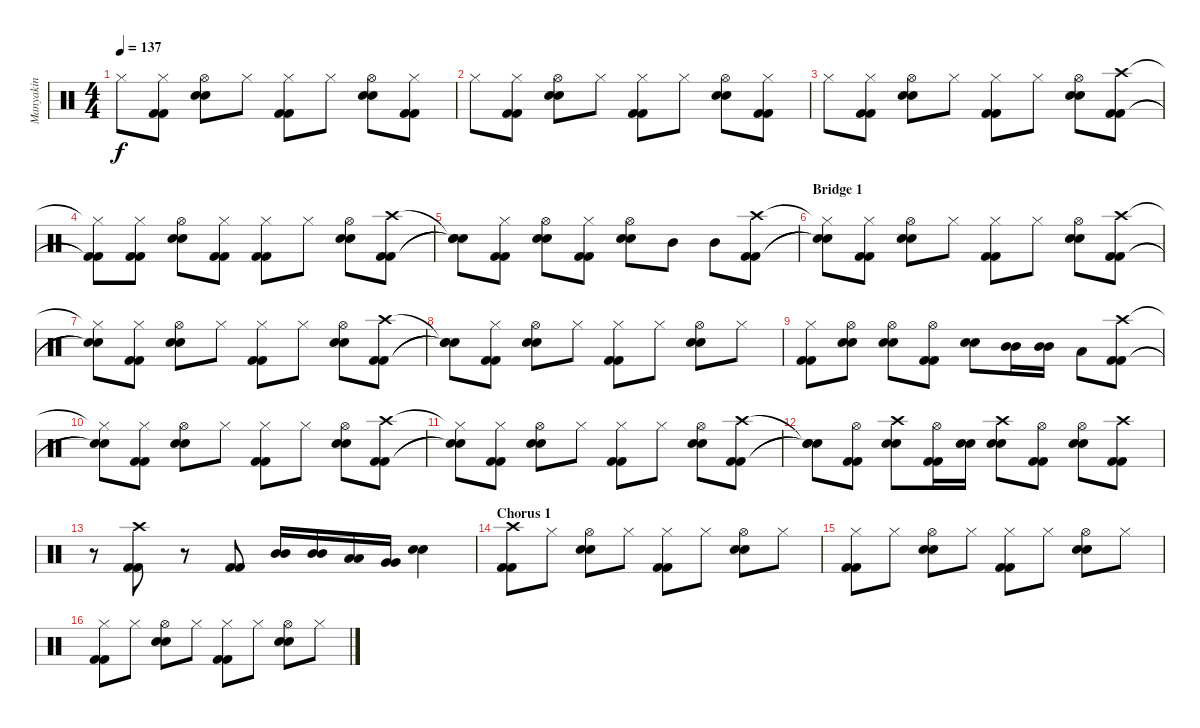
\track ("Manyakin" "Manyakin") {instrument percussion}
\staff {score}
\articulation defaults
\ts (4 4)
\tempo 137
\clef neutral
\ks c "Hi-Hat (closed)".8{dy f}
("Hi-Hat (closed)" "Kick (hit) 2" "Kick (hit) 2").8 ("Hi-Hat (open)" "Electric Snare (hit)" "Electric Snare (hit)").8 "Hi-Hat (closed)".8 ("Hi-Hat (closed)" "Kick (hit) 2" "Kick (hit) 2").8 "Hi-Hat (closed)".8 ("Hi-Hat (open)" "Electric Snare (hit)" "Electric Snare (hit)").8 ("Hi-Hat (closed)" "Kick (hit) 2" "Kick (hit) 2").8 |
"Hi-Hat (closed)".8 ("Hi-Hat (closed)" "Kick (hit) 2" "Kick (hit) 2").8 ("Hi-Hat (open)" "Electric Snare (hit)" "Electric Snare (hit)").8 "Hi-Hat (closed)".8 ("Hi-Hat (closed)" "Kick (hit) 2" "Kick (hit) 2").8 "Hi-Hat (closed)".8 ("Hi-Hat (open)" "Electric Snare (hit)" "Electric Snare (hit)").8 ("Hi-Hat (closed)" "Kick (hit) 2" "Kick (hit) 2").8 |
"Hi-Hat (closed)".8 ("Hi-Hat (closed)" "Kick (hit) 2" "Kick (hit) 2").8 ("Hi-Hat (open)" "Electric Snare (hit)" "Electric Snare (hit)").8 "Hi-Hat (closed)".8 ("Hi-Hat (closed)" "Kick (hit) 2" "Kick (hit) 2").8 "Hi-Hat (closed)".8 ("Hi-Hat (open)" "Electric Snare (hit)" "Electric Snare (hit)").8 ("Crash high (hit)" "Kick (hit) 2" "Kick (hit) 2").8 |
("Hi-Hat (closed)"{t} "Kick (hit) 2"{t} "Kick (hit) 2"{t}).8 ("Hi-Hat (closed)" "Kick (hit) 2" "Kick (hit) 2").8 ("Hi-Hat (open)" "Electric Snare (hit)" "Electric Snare (hit)").8 ("Hi-Hat (closed)" "Kick (hit) 2" "Kick (hit) 2").8 ("Hi-Hat (closed)" "Kick (hit) 2" "Kick (hit) 2").8 "Hi-Hat (closed)".8 ("Hi-Hat (open)" "Electric Snare (hit)" "Electric Snare (hit)").8 ("Crash high (hit)" "Kick (hit) 2" "Kick (hit) 2").8 |
("Snare (hit)"{t} "Snare (hit)"{t} "Snare (hit)"{t}).8 ("Hi-Hat (closed)" "Kick (hit) 2" "Kick (hit) 2").8 ("Hi-Hat (open)" "Electric Snare (hit)" "Electric Snare (hit)").8 ("Hi-Hat (closed)" "Kick (hit) 2" "Kick (hit) 2").8 ("Hi-Hat (open)" "Electric Snare (hit)" "Electric Snare (hit)").8 "Mid Tom (hit)".8 "Mid Tom (hit)".8 ("Crash high (hit)" "Kick (hit) 2" "Kick (hit) 2").8 |
\section ("" "Bridge 1")
("Hi-Hat (closed)"{t} "Snare (hit)"{t} "Snare (hit)"{t}).8 ("Hi-Hat (closed)" "Kick (hit) 2" "Kick (hit) 2").8 ("Hi-Hat (open)" "Electric Snare (hit)" "Electric Snare (hit)").8 "Hi-Hat (closed)".8 ("Hi-Hat (closed)" "Kick (hit) 2" "Kick (hit) 2").8 "Hi-Hat (closed)".8 ("Hi-Hat (open)" "Electric Snare (hit)" "Electric Snare (hit)").8 ("Crash high (hit)" "Kick (hit) 2" "Kick (hit) 2").8 |
("Hi-Hat (closed)"{t} "Snare (hit)"{t} "Snare (hit)"{t}).8 ("Hi-Hat (closed)" "Kick (hit) 2" "Kick (hit) 2").8 ("Hi-Hat (open)" "Electric Snare (hit)" "Electric Snare (hit)").8 "Hi-Hat (closed)".8 ("Hi-Hat (closed)" "Kick (hit) 2" "Kick (hit) 2").8 "Hi-Hat (closed)".8 ("Hi-Hat (open)" "Electric Snare (hit)" "Electric Snare (hit)").8 ("Crash high (hit)" "Kick (hit) 2" "Kick (hit) 2").8 |
("Snare (hit)"{t} "Snare (hit)"{t} "Snare (hit)"{t}).8 ("Hi-Hat (closed)" "Kick (hit) 2" "Kick (hit) 2").8 ("Hi-Hat (open)" "Electric Snare (hit)" "Electric Snare (hit)").8 "Hi-Hat (closed)".8 ("Hi-Hat (closed)" "Kick (hit) 2" "Kick (hit) 2").8 "Hi-Hat (closed)".8 ("Hi-Hat (open)" "Electric Snare (hit)" "Electric Snare (hit)").8 "Hi-Hat (closed)".8 |
("Hi-Hat (closed)" "Kick (hit) 2" "Kick (hit) 2").8 ("Hi-Hat (open)" "Electric Snare (hit)" "Electric Snare (hit)").8 ("Hi-Hat (open)" "Electric Snare (hit)" "Electric Snare (hit)").8 ("Hi-Hat (open)" "Kick (hit) 2" "Kick (hit) 2").8 ("Electric Snare (hit)" "Electric Snare (hit)").8 ("Mid Tom (hit)" "Mid Tom (hit)").16 ("Mid Tom (hit)" "Mid Tom (hit)").16 "Low Tom (hit)".8 ("Crash high (hit)" "Kick (hit) 2" "Kick (hit) 2").8 |
("Hi-Hat (closed)"{t} "Snare (hit)"{t} "Snare (hit)"{t}).8 ("Hi-Hat (closed)" "Kick (hit) 2" "Kick (hit) 2").8 ("Hi-Hat (open)" "Electric Snare (hit)" "Electric Snare (hit)").8 "Hi-Hat (closed)".8 ("Hi-Hat (closed)" "Kick (hit) 2" "Kick (hit) 2").8 "Hi-Hat (closed)".8 ("Hi-Hat (open)" "Electric Snare (hit)" "Electric Snare (hit)").8 ("Crash high (hit)" "Kick (hit) 2" "Kick (hit) 2").8 |
("Hi-Hat (closed)"{t} "Snare (hit)"{t} "Snare (hit)"{t}).8 ("Hi-Hat (closed)" "Kick (hit) 2" "Kick (hit) 2").8 ("Hi-Hat (open)" "Electric Snare (hit)" "Electric Snare (hit)").8 "Hi-Hat (closed)".8 ("Hi-Hat (closed)" "Kick (hit) 2" "Kick (hit) 2").8 "Hi-Hat (closed)".8 ("Hi-Hat (open)" "Electric Snare (hit)" "Electric Snare (hit)").8 ("Crash high (hit)" "Kick (hit) 2" "Kick (hit) 2").8 |
("Snare (hit)"{t} "Snare (hit)"{t} "Snare (hit)"{t}).8 ("Hi-Hat (open)" "Kick (hit) 2" "Kick (hit) 2").8 ("Crash high (hit)" "Electric Snare (hit)" "Electric Snare (hit)").8 ("Hi-Hat (open)" "Kick (hit) 2" "Kick (hit) 2").16 ("Electric Snare (hit)" "Electric Snare (hit)").16 ("Crash high (hit)" "Electric Snare (hit)" "Electric Snare (hit)").8 ("Hi-Hat (open)" "Kick (hit) 2" "Kick (hit) 2").8 ("Hi-Hat (open)" "Electric Snare (hit)" "Electric Snare (hit)").8 ("Crash high (hit)" "Kick (hit) 2" "Kick (hit) 2").8 |
r.8 ("Crash high (hit)" "Kick (hit) 2" "Kick (hit) 2").8 r.8 ("Kick (hit) 2" "Kick (hit) 2").8 ("Mid Tom (hit)" "Mid Tom (hit)").16 ("Mid Tom (hit)" "Mid Tom (hit)").16 ("Low Tom (hit)" "Low Tom (hit)").16 ("Very Low Tom (hit)" "Very Low Tom (hit)").16 ("Electric Snare (hit)" "Electric Snare (hit)").4 |
\section ("" "Chorus 1")
("Crash high (hit)" "Kick (hit) 2" "Kick (hit) 2").8 "Hi-Hat (closed)".8 ("Hi-Hat (open)" "Electric Snare (hit)" "Electric Snare (hit)").8 "Hi-Hat (closed)".8 ("Hi-Hat (closed)" "Kick (hit) 2" "Kick (hit) 2").8 "Hi-Hat (closed)".8 ("Hi-Hat (open)" "Electric Snare (hit)" "Electric Snare (hit)").8 "Hi-Hat (closed)".8 |
("Hi-Hat (closed)" "Kick (hit) 2" "Kick (hit) 2").8 "Hi-Hat (closed)".8 ("Hi-Hat (open)" "Electric Snare (hit)" "Electric Snare (hit)").8 "Hi-Hat (closed)".8 ("Hi-Hat (closed)" "Kick (hit) 2" "Kick (hit) 2").8 "Hi-Hat (closed)".8 ("Hi-Hat (open)" "Electric Snare (hit)" "Electric Snare (hit)").8 "Hi-Hat (closed)".8 |
("Hi-Hat (closed)" "Kick (hit) 2" "Kick (hit) 2").8 "Hi-Hat (closed)".8 ("Hi-Hat (open)" "Electric Snare (hit)" "Electric Snare (hit)").8 "Hi-Hat (closed)".8 ("Hi-Hat (closed)" "Kick (hit) 2" "Kick (hit) 2").8 "Hi-Hat (closed)".8 ("Hi-Hat (open)" "Electric Snare (hit)" "Electric Snare (hit)").8 "Hi-Hat (closed)".8
